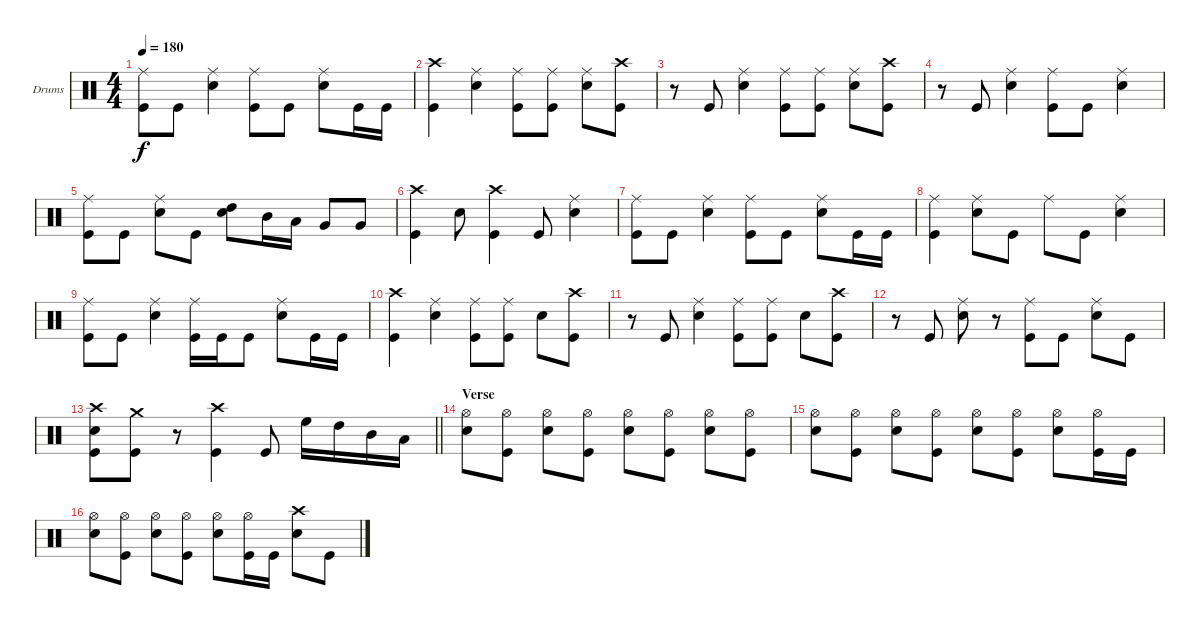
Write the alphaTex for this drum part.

\bracketExtendMode groupsimilarinstruments
\firstSystemTrackNameOrientation horizontal
\otherSystemsTrackNameOrientation horizontal
\track ("Drumkit" "Drums") {instrument percussion}
\staff {score}
\articulation defaults
\ts (4 4)
\tempo 180
\clef neutral
\ks c
("Ride (middle)" "Kick (hit)").8{dy f} "Kick (hit)".8 ("Ride (middle)" "Snare (hit) 2").4 ("Ride (middle)" "Kick (hit)").8 "Kick (hit)".8 ("Ride (middle)" "Snare (hit) 2").8 "Kick (hit)".16 "Kick (hit)".16 |
("Crash high (hit)" "Kick (hit)").4 ("Ride (middle)" "Snare (hit) 2").4 ("Ride (middle)" "Kick (hit)").8 ("Ride (middle)" "Kick (hit)").8 ("Ride (middle)" "Snare (hit) 2").8 ("Crash high (hit)" "Kick (hit)").8 |
r.8 "Kick (hit)".8 ("Ride (middle)" "Snare (hit) 2").4 ("Ride (middle)" "Kick (hit)").8 ("Ride (middle)" "Kick (hit)").8 ("Ride (middle)" "Snare (hit) 2").8 ("Crash high (hit)" "Kick (hit)").8 |
r.8 "Kick (hit)".8 ("Ride (middle)" "Snare (hit) 2").4 ("Ride (middle)" "Kick (hit)").8 "Kick (hit)".8 ("Ride (middle)" "Snare (hit) 2").4 |
("Ride (middle)" "Kick (hit)").8 "Kick (hit)".8 ("Ride (middle)" "Snare (hit) 2").8 "Kick (hit)".8 ("High Tom (hit)" "Snare (hit) 2").8 "Mid Tom (hit)".16 "Low Tom (hit)".16 "Very Low Tom (hit)".8 "Very Low Tom (hit)".8 |
("Crash high (hit)" "Kick (hit)").4 "Snare (hit) 2".8 ("Crash high (hit)" "Kick (hit)").4 "Kick (hit)".8 ("Ride (middle)" "Snare (hit) 2").4 |
("Ride (middle)" "Kick (hit)").8 "Kick (hit)".8 ("Ride (middle)" "Snare (hit) 2").4 ("Ride (middle)" "Kick (hit)").8 "Kick (hit)".8 ("Ride (middle)" "Snare (hit) 2").8 "Kick (hit)".16 "Kick (hit)".16 |
("Ride (middle)" "Kick (hit)").4 ("Ride (middle)" "Snare (hit) 2").8 "Kick (hit)".8 "Ride (middle)".8 "Kick (hit)".8 ("Ride (middle)" "Snare (hit) 2").4 |
("Ride (middle)" "Kick (hit)").8 "Kick (hit)".8 ("Ride (middle)" "Snare (hit) 2").4 ("Ride (middle)" "Kick (hit)").16 "Kick (hit)".16 "Kick (hit)".8 ("Ride (middle)" "Snare (hit) 2").8 "Kick (hit)".16 "Kick (hit)".16 |
("Crash high (hit)" "Kick (hit)").4 ("Ride (middle)" "Snare (hit) 2").4 ("Ride (middle)" "Kick (hit)").8 ("Ride (middle)" "Kick (hit)").8 "Snare (hit) 2".8 ("Crash high (hit)" "Kick (hit)").8 |
r.8 "Kick (hit)".8 ("Ride (middle)" "Snare (hit) 2").4 ("Ride (middle)" "Kick (hit)").8 ("Ride (middle)" "Kick (hit)").8 "Snare (hit) 2".8 ("Crash high (hit)" "Kick (hit)").8 |
r.8 "Kick (hit)".8 ("Ride (middle)" "Snare (hit) 2").8 r.8 ("Ride (middle)" "Kick (hit)").8 "Kick (hit)".8 ("Ride (middle)" "Snare (hit) 2").8 "Kick (hit)".8 |
\barLineRight lightlight
("Crash high (hit)" "Snare (hit) 2" "Kick (hit)").8 ("Crash medium (hit)" "Kick (hit)").8 r.8 ("Crash high (hit)" "Kick (hit)").4 "Kick (hit)".8 "High Floor Tom (hit)".16 "High Tom (hit)".16 "Mid Tom (hit)".16 "Low Tom (hit)".16 |
\section ("" "Verse")
("Hi-Hat (open)" "Snare (hit) 2").8 ("Hi-Hat (open)" "Kick (hit)").8 ("Hi-Hat (open)" "Snare (hit) 2").8 ("Hi-Hat (open)" "Kick (hit)").8 ("Hi-Hat (open)" "Snare (hit) 2").8 ("Hi-Hat (open)" "Kick (hit)").8 ("Hi-Hat (open)" "Snare (hit) 2").8 ("Hi-Hat (open)" "Kick (hit)").8 |
("Hi-Hat (open)" "Snare (hit) 2").8 ("Hi-Hat (open)" "Kick (hit)").8 ("Hi-Hat (open)" "Snare (hit) 2").8 ("Hi-Hat (open)" "Kick (hit)").8 ("Hi-Hat (open)" "Snare (hit) 2").8 ("Hi-Hat (open)" "Kick (hit)").8 ("Hi-Hat (open)" "Snare (hit) 2").8 ("Hi-Hat (open)" "Kick (hit)").16 "Kick (hit)".16 |
("Hi-Hat (open)" "Snare (hit) 2").8 ("Hi-Hat (open)" "Kick (hit)").8 ("Hi-Hat (open)" "Snare (hit) 2").8 ("Hi-Hat (open)" "Kick (hit)").8 ("Hi-Hat (open)" "Snare (hit) 2").8 ("Hi-Hat (open)" "Kick (hit)").16 "Kick (hit)".16 ("Crash high (hit)" "Snare (hit) 2").8 "Kick (hit)".8
